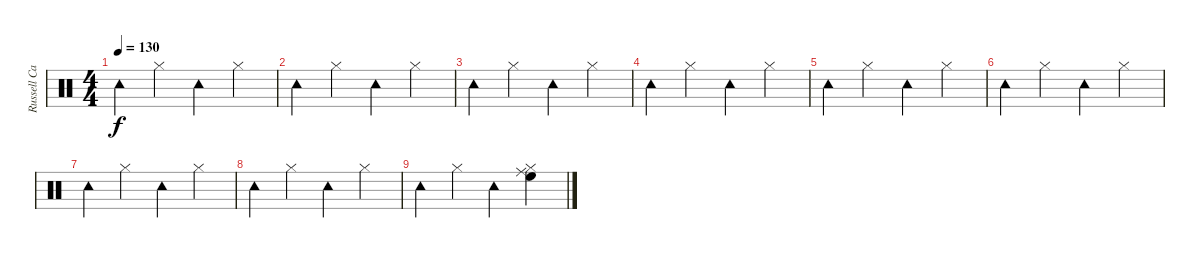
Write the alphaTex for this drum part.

\track ("Russell Cannon" "Russell Ca") {instrument percussion}
\staff {score}
\articulation defaults
\ts (4 4)
\tempo 130
\clef neutral
\ks c "Tambourine (hit)".4{dy f} "Hi-Hat (closed)".4 "Tambourine (hit)".4 "Hi-Hat (closed)".4
|
"Tambourine (hit)".4 "Hi-Hat (closed)".4 "Tambourine (hit)".4 "Hi-Hat (closed)".4 |
"Tambourine (hit)".4 "Hi-Hat (closed)".4 "Tambourine (hit)".4 "Hi-Hat (closed)".4 |
"Tambourine (hit)".4 "Hi-Hat (closed)".4 "Tambourine (hit)".4 "Hi-Hat (closed)".4 |
"Tambourine (hit)".4 "Hi-Hat (closed)".4 "Tambourine (hit)".4 "Hi-Hat (closed)".4 |
"Tambourine (hit)".4 "Hi-Hat (closed)".4 "Tambourine (hit)".4 "Hi-Hat (closed)".4 |
"Tambourine (hit)".4 "Hi-Hat (closed)".4 "Tambourine (hit)".4 "Hi-Hat (closed)".4 |
"Tambourine (hit)".4 "Hi-Hat (closed)".4 "Tambourine (hit)".4 "Hi-Hat (closed)".4 |
"Tambourine (hit)".4 "Hi-Hat (closed)".4 "Tambourine (hit)".4 ("High Floor Tom (hit)" "Ride (middle)" "Hi-Hat (closed)").4
